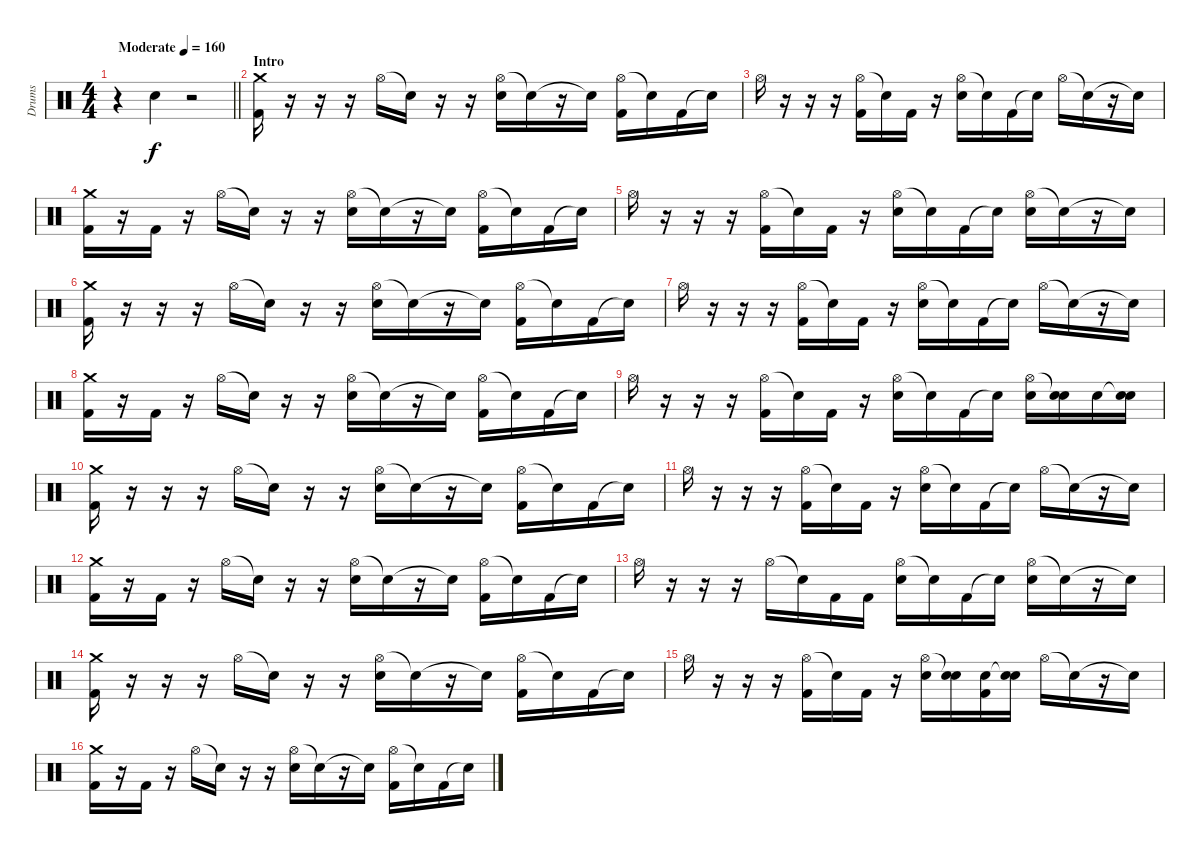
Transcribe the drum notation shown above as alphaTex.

\track ("Drums" "Drums") {instrument percussion}
\staff {score}
\articulation defaults
\ts (4 4)
\tempo (160 "Moderate")
\clef neutral
\barLineRight lightlight
\ks c
r.4{dy f} "Snare (hit) 2".4 r.2 |
\section ("" "Intro")
("Crash medium (hit)" "Kick (hit) 2").16 r.16 r.16 r.16 "Hi-Hat (open)".16 "Snare (hit)"{t}.16 r.16 r.16 ("Hi-Hat (open)" "Snare (hit) 2").16 "Snare (hit)"{t}.16 r.16 "Snare (hit)"{t}.16 ("Hi-Hat (open)" "Kick (hit) 2").16 "Snare (hit)"{t}.16 "Kick (hit) 2".16 "Snare (hit)"{t}.16 |
"Hi-Hat (open)".16 r.16 r.16 r.16 ("Hi-Hat (open)" "Kick (hit) 2").16 "Snare (hit)"{t}.16 "Kick (hit) 2".16 r.16 ("Hi-Hat (open)" "Snare (hit) 2").16 "Snare (hit)"{t}.16 "Kick (hit) 2".16 "Snare (hit)"{t}.16 "Hi-Hat (open)".16 "Snare (hit)"{t}.16 r.16 "Snare (hit)"{t}.16 |
("Crash medium (hit)" "Kick (hit) 2").16 r.16 "Kick (hit) 2".16 r.16 "Hi-Hat (open)".16 "Snare (hit)"{t}.16 r.16 r.16 ("Hi-Hat (open)" "Snare (hit) 2").16 "Snare (hit)"{t}.16 r.16 "Snare (hit)"{t}.16 ("Hi-Hat (open)" "Kick (hit) 2").16 "Snare (hit)"{t}.16 "Kick (hit) 2".16 "Snare (hit)"{t}.16 |
"Hi-Hat (open)".16 r.16 r.16 r.16 ("Hi-Hat (open)" "Kick (hit) 2").16 "Snare (hit)"{t}.16 "Kick (hit) 2".16 r.16 ("Hi-Hat (open)" "Snare (hit) 2").16 "Snare (hit)"{t}.16 "Kick (hit) 2".16 "Snare (hit)"{t}.16 ("Hi-Hat (open)" "Snare (hit) 2").16 "Snare (hit)"{t}.16 r.16 "Snare (hit)"{t}.16 |
("Crash medium (hit)" "Kick (hit) 2").16 r.16 r.16 r.16 "Hi-Hat (open)".16 "Snare (hit)"{t}.16 r.16 r.16 ("Hi-Hat (open)" "Snare (hit) 2").16 "Snare (hit)"{t}.16 r.16 "Snare (hit)"{t}.16 ("Hi-Hat (open)" "Kick (hit) 2").16 "Snare (hit)"{t}.16 "Kick (hit) 2".16 "Snare (hit)"{t}.16 |
"Hi-Hat (open)".16 r.16 r.16 r.16 ("Hi-Hat (open)" "Kick (hit) 2").16 "Snare (hit)"{t}.16 "Kick (hit) 2".16 r.16 ("Hi-Hat (open)" "Snare (hit) 2").16 "Snare (hit)"{t}.16 "Kick (hit) 2".16 "Snare (hit)"{t}.16 "Hi-Hat (open)".16 "Snare (hit)"{t}.16 r.16 "Snare (hit)"{t}.16 |
("Crash medium (hit)" "Kick (hit) 2").16 r.16 "Kick (hit) 2".16 r.16 "Hi-Hat (open)".16 "Snare (hit)"{t}.16 r.16 r.16 ("Hi-Hat (open)" "Snare (hit) 2").16 "Snare (hit)"{t}.16 r.16 "Snare (hit)"{t}.16 ("Hi-Hat (open)" "Kick (hit) 2").16 "Snare (hit)"{t}.16 "Kick (hit) 2".16 "Snare (hit)"{t}.16 |
"Hi-Hat (open)".16 r.16 r.16 r.16 ("Hi-Hat (open)" "Kick (hit) 2").16 "Snare (hit)"{t}.16 "Kick (hit) 2".16 r.16 ("Hi-Hat (open)" "Snare (hit) 2").16 "Snare (hit)"{t}.16 "Kick (hit) 2".16 "Snare (hit)"{t}.16 ("Hi-Hat (open)" "Snare (hit) 2").16 ("Snare (hit)"{t} "Snare (hit) 2").16 "Snare (hit) 2".16 ("Snare (hit)"{t} "Snare (hit) 2").16 |
("Crash medium (hit)" "Kick (hit) 2").16 r.16 r.16 r.16 "Hi-Hat (open)".16 "Snare (hit)"{t}.16 r.16 r.16 ("Hi-Hat (open)" "Snare (hit) 2").16 "Snare (hit)"{t}.16 r.16 "Snare (hit)"{t}.16 ("Hi-Hat (open)" "Kick (hit) 2").16 "Snare (hit)"{t}.16 "Kick (hit) 2".16 "Snare (hit)"{t}.16 |
"Hi-Hat (open)".16 r.16 r.16 r.16 ("Hi-Hat (open)" "Kick (hit) 2").16 "Snare (hit)"{t}.16 "Kick (hit) 2".16 r.16 ("Hi-Hat (open)" "Snare (hit) 2").16 "Snare (hit)"{t}.16 "Kick (hit) 2".16 "Snare (hit)"{t}.16 "Hi-Hat (open)".16 "Snare (hit)"{t}.16 r.16 "Snare (hit)"{t}.16 |
("Crash medium (hit)" "Kick (hit) 2").16 r.16 "Kick (hit) 2".16 r.16 "Hi-Hat (open)".16 "Snare (hit)"{t}.16 r.16 r.16 ("Hi-Hat (open)" "Snare (hit) 2").16 "Snare (hit)"{t}.16 r.16 "Snare (hit)"{t}.16 ("Hi-Hat (open)" "Kick (hit) 2").16 "Snare (hit)"{t}.16 "Kick (hit) 2".16 "Snare (hit)"{t}.16 |
"Hi-Hat (open)".16 r.16 r.16 r.16 "Hi-Hat (open)".16 "Snare (hit)"{t}.16 "Kick (hit) 2".16 "Kick (hit) 2".16 ("Hi-Hat (open)" "Snare (hit) 2").16 "Snare (hit)"{t}.16 "Kick (hit) 2".16 "Snare (hit)"{t}.16 ("Hi-Hat (open)" "Snare (hit) 2").16 "Snare (hit)"{t}.16 r.16 "Snare (hit)"{t}.16 |
("Crash medium (hit)" "Kick (hit) 2").16 r.16 r.16 r.16 "Hi-Hat (open)".16 "Snare (hit)"{t}.16 r.16 r.16 ("Hi-Hat (open)" "Snare (hit) 2").16 "Snare (hit)"{t}.16 r.16 "Snare (hit)"{t}.16 ("Hi-Hat (open)" "Kick (hit) 2").16 "Snare (hit)"{t}.16 "Kick (hit) 2".16 "Snare (hit)"{t}.16 |
"Hi-Hat (open)".16 r.16 r.16 r.16 ("Hi-Hat (open)" "Kick (hit) 2").16 "Snare (hit)"{t}.16 "Kick (hit) 2".16 r.16 ("Hi-Hat (open)" "Snare (hit) 2").16 ("Snare (hit)"{t} "Snare (hit) 2").16 ("Snare (hit) 2" "Kick (hit) 2").16 ("Snare (hit)"{t} "Snare (hit) 2").16 "Hi-Hat (open)".16 "Snare (hit)"{t}.16 r.16 "Snare (hit)"{t}.16 |
("Crash medium (hit)" "Kick (hit) 2").16 r.16 "Kick (hit) 2".16 r.16 "Hi-Hat (open)".16 "Snare (hit)"{t}.16 r.16 r.16 ("Hi-Hat (open)" "Snare (hit) 2").16 "Snare (hit)"{t}.16 r.16 "Snare (hit)"{t}.16 ("Hi-Hat (open)" "Kick (hit) 2").16 "Snare (hit)"{t}.16 "Kick (hit) 2".16 "Snare (hit)"{t}.16
